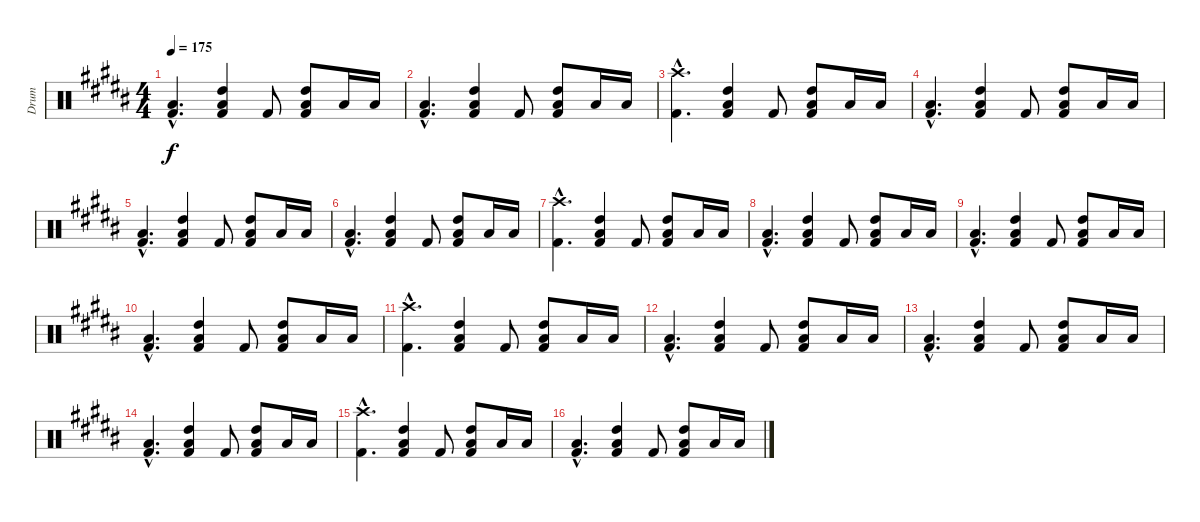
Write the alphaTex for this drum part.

\track ("Drum" "Drum") {instrument percussion}
\staff {score}
\articulation defaults
\ts (4 4)
\tempo 175
\clef neutral
\ks b
("Kick (hit) 2"{hac} "Low Tom (hit)"{hac}).4{d dy f} ("Low Floor Tom (hit)" "Kick (hit) 2" "High Tom (hit)").4 "Kick (hit) 2".8 ("Low Floor Tom (hit)" "Kick (hit) 2" "High Tom (hit)").8 "Low Tom (hit)".16 "Low Tom (hit)".16 |
("Kick (hit) 2"{hac} "Low Tom (hit)"{hac}).4{d} ("Low Floor Tom (hit)" "Kick (hit) 2" "High Tom (hit)").4 "Kick (hit) 2".8 ("Low Floor Tom (hit)" "Kick (hit) 2" "High Tom (hit)").8 "Low Tom (hit)".16 "Low Tom (hit)".16 |
("Crash high (hit)"{hac} "Kick (hit) 2"{hac}).4{d} ("Low Floor Tom (hit)" "Kick (hit) 2" "High Tom (hit)").4 "Kick (hit) 2".8 ("Low Floor Tom (hit)" "Kick (hit) 2" "High Tom (hit)").8 "Low Tom (hit)".16 "Low Tom (hit)".16 |
("Kick (hit) 2"{hac} "Low Tom (hit)"{hac}).4{d} ("Low Floor Tom (hit)" "Kick (hit) 2" "High Tom (hit)").4 "Kick (hit) 2".8 ("Low Floor Tom (hit)" "Kick (hit) 2" "High Tom (hit)").8 "Low Tom (hit)".16 "Low Tom (hit)".16 |
("Kick (hit) 2"{hac} "Low Tom (hit)"{hac}).4{d} ("Low Floor Tom (hit)" "Kick (hit) 2" "High Tom (hit)").4 "Kick (hit) 2".8 ("Low Floor Tom (hit)" "Kick (hit) 2" "High Tom (hit)").8 "Low Tom (hit)".16 "Low Tom (hit)".16 |
("Kick (hit) 2"{hac} "Low Tom (hit)"{hac}).4{d} ("Low Floor Tom (hit)" "Kick (hit) 2" "High Tom (hit)").4 "Kick (hit) 2".8 ("Low Floor Tom (hit)" "Kick (hit) 2" "High Tom (hit)").8 "Low Tom (hit)".16 "Low Tom (hit)".16 |
("Crash high (hit)"{hac} "Kick (hit) 2"{hac}).4{d} ("Low Floor Tom (hit)" "Kick (hit) 2" "High Tom (hit)").4 "Kick (hit) 2".8 ("Low Floor Tom (hit)" "Kick (hit) 2" "High Tom (hit)").8 "Low Tom (hit)".16 "Low Tom (hit)".16 |
("Kick (hit) 2"{hac} "Low Tom (hit)"{hac}).4{d} ("Low Floor Tom (hit)" "Kick (hit) 2" "High Tom (hit)").4 "Kick (hit) 2".8 ("Low Floor Tom (hit)" "Kick (hit) 2" "High Tom (hit)").8 "Low Tom (hit)".16 "Low Tom (hit)".16 |
("Kick (hit) 2"{hac} "Low Tom (hit)"{hac}).4{d} ("Low Floor Tom (hit)" "Kick (hit) 2" "High Tom (hit)").4 "Kick (hit) 2".8 ("Low Floor Tom (hit)" "Kick (hit) 2" "High Tom (hit)").8 "Low Tom (hit)".16 "Low Tom (hit)".16 |
("Kick (hit) 2"{hac} "Low Tom (hit)"{hac}).4{d} ("Low Floor Tom (hit)" "Kick (hit) 2" "High Tom (hit)").4 "Kick (hit) 2".8 ("Low Floor Tom (hit)" "Kick (hit) 2" "High Tom (hit)").8 "Low Tom (hit)".16 "Low Tom (hit)".16 |
("Crash high (hit)"{hac} "Kick (hit) 2"{hac}).4{d} ("Low Floor Tom (hit)" "Kick (hit) 2" "High Tom (hit)").4 "Kick (hit) 2".8 ("Low Floor Tom (hit)" "Kick (hit) 2" "High Tom (hit)").8 "Low Tom (hit)".16 "Low Tom (hit)".16 |
("Kick (hit) 2"{hac} "Low Tom (hit)"{hac}).4{d} ("Low Floor Tom (hit)" "Kick (hit) 2" "High Tom (hit)").4 "Kick (hit) 2".8 ("Low Floor Tom (hit)" "Kick (hit) 2" "High Tom (hit)").8 "Low Tom (hit)".16 "Low Tom (hit)".16 |
("Kick (hit) 2"{hac} "Low Tom (hit)"{hac}).4{d} ("Low Floor Tom (hit)" "Kick (hit) 2" "High Tom (hit)").4 "Kick (hit) 2".8 ("Low Floor Tom (hit)" "Kick (hit) 2" "High Tom (hit)").8 "Low Tom (hit)".16 "Low Tom (hit)".16 |
("Kick (hit) 2"{hac} "Low Tom (hit)"{hac}).4{d} ("Low Floor Tom (hit)" "Kick (hit) 2" "High Tom (hit)").4 "Kick (hit) 2".8 ("Low Floor Tom (hit)" "Kick (hit) 2" "High Tom (hit)").8 "Low Tom (hit)".16 "Low Tom (hit)".16 |
("Crash high (hit)"{hac} "Kick (hit) 2"{hac}).4{d} ("Low Floor Tom (hit)" "Kick (hit) 2" "High Tom (hit)").4 "Kick (hit) 2".8 ("Low Floor Tom (hit)" "Kick (hit) 2" "High Tom (hit)").8 "Low Tom (hit)".16 "Low Tom (hit)".16 |
("Kick (hit) 2"{hac} "Low Tom (hit)"{hac}).4{d} ("Low Floor Tom (hit)" "Kick (hit) 2" "High Tom (hit)").4 "Kick (hit) 2".8 ("Low Floor Tom (hit)" "Kick (hit) 2" "High Tom (hit)").8 "Low Tom (hit)".16 "Low Tom (hit)".16
